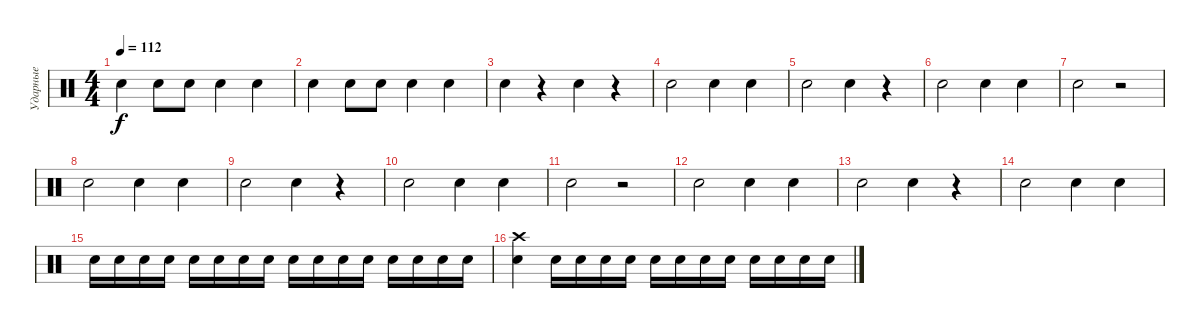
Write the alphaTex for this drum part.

\track ("Ударные" "Ударные") {instrument percussion}
\staff {score}
\articulation defaults
\ts (4 4)
\tempo 112
\clef neutral
\ks c "Snare (hit) 2".4{dy f} "Snare (hit) 2".8 "Snare (hit) 2".8 "Snare (hit) 2".4 "Snare (hit) 2".4
|
"Snare (hit) 2".4 "Snare (hit) 2".8 "Snare (hit) 2".8 "Snare (hit) 2".4 "Snare (hit) 2".4 |
"Snare (hit) 2".4 r.4 "Snare (hit) 2".4 r.4 |
"Snare (hit) 2".2 "Snare (hit) 2".4 "Snare (hit) 2".4 |
"Snare (hit) 2".2 "Snare (hit) 2".4 r.4 |
"Snare (hit) 2".2 "Snare (hit) 2".4 "Snare (hit) 2".4 |
"Snare (hit) 2".2 r.2 |
"Snare (hit) 2".2 "Snare (hit) 2".4 "Snare (hit) 2".4 |
"Snare (hit) 2".2 "Snare (hit) 2".4 r.4 |
"Snare (hit) 2".2 "Snare (hit) 2".4 "Snare (hit) 2".4 |
"Snare (hit) 2".2 r.2 |
"Snare (hit) 2".2 "Snare (hit) 2".4 "Snare (hit) 2".4 |
"Snare (hit) 2".2 "Snare (hit) 2".4 r.4 |
"Snare (hit) 2".2 "Snare (hit) 2".4 "Snare (hit) 2".4 |
"Snare (hit) 2".16 "Snare (hit) 2".16 "Snare (hit) 2".16 "Snare (hit) 2".16 "Snare (hit) 2".16 "Snare (hit) 2".16 "Snare (hit) 2".16 "Snare (hit) 2".16 "Snare (hit) 2".16 "Snare (hit) 2".16 "Snare (hit) 2".16 "Snare (hit) 2".16 "Snare (hit) 2".16 "Snare (hit) 2".16 "Snare (hit) 2".16 "Snare (hit) 2".16 |
("Crash high (hit)" "Snare (hit) 2").4 "Snare (hit) 2".16 "Snare (hit) 2".16 "Snare (hit) 2".16 "Snare (hit) 2".16 "Snare (hit) 2".16 "Snare (hit) 2".16 "Snare (hit) 2".16 "Snare (hit) 2".16 "Snare (hit) 2".16 "Snare (hit) 2".16 "Snare (hit) 2".16 "Snare (hit) 2".16
